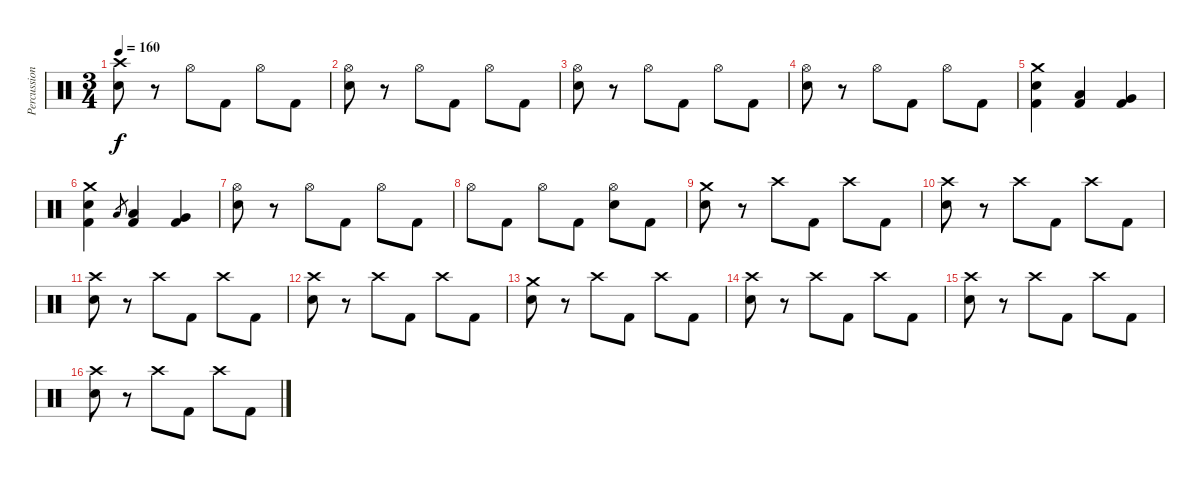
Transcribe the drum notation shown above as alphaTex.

\track ("Percussion" "Percussion") {instrument percussion}
\staff {score}
\articulation defaults
\ts (3 4)
\tempo 160
\clef neutral
\ks c
("Crash high (hit)" "Snare (hit) 2").8{dy f} r.8 "Hi-Hat (open)".8 "Kick (hit) 2".8 "Hi-Hat (open)".8 "Kick (hit) 2".8 |
("Hi-Hat (open)" "Snare (hit) 2").8 r.8 "Hi-Hat (open)".8 "Kick (hit) 2".8 "Hi-Hat (open)".8 "Kick (hit) 2".8 |
("Hi-Hat (open)" "Snare (hit) 2").8 r.8 "Hi-Hat (open)".8 "Kick (hit) 2".8 "Hi-Hat (open)".8 "Kick (hit) 2".8 |
("Hi-Hat (open)" "Snare (hit) 2").8 r.8 "Hi-Hat (open)".8 "Kick (hit) 2".8 "Hi-Hat (open)".8 "Kick (hit) 2".8 |
("Crash medium (hit)" "Snare (hit) 2" "Kick (hit) 2").4 ("Low Tom (hit)" "Kick (hit) 2").4 ("Very Low Tom (hit)" "Kick (hit) 2").4 |
("Crash medium (hit)" "Snare (hit) 2" "Kick (hit) 2").4 "Low Tom (hit)".8{gr} ("Low Tom (hit)" "Kick (hit) 2").4 ("Very Low Tom (hit)" "Kick (hit) 2").4 |
("Hi-Hat (open)" "Snare (hit) 2").8 r.8 "Hi-Hat (open)".8 "Kick (hit) 2".8 "Hi-Hat (open)".8 "Kick (hit) 2".8 |
"Hi-Hat (open)".8 "Kick (hit) 2".8 "Hi-Hat (open)".8 "Kick (hit) 2".8 ("Hi-Hat (open)" "Snare (hit) 2").8 "Kick (hit) 2".8 |
("Crash medium (hit)" "Snare (hit) 2").8 r.8 "Crash high (hit)".8 "Kick (hit) 2".8 "Crash high (hit)".8 "Kick (hit) 2".8 |
("Crash high (hit)" "Snare (hit) 2").8 r.8 "Crash high (hit)".8 "Kick (hit) 2".8 "Crash high (hit)".8 "Kick (hit) 2".8 |
("Crash high (hit)" "Snare (hit) 2").8 r.8 "Crash high (hit)".8 "Kick (hit) 2".8 "Crash high (hit)".8 "Kick (hit) 2".8 |
("Crash high (hit)" "Snare (hit) 2").8 r.8 "Crash high (hit)".8 "Kick (hit) 2".8 "Crash high (hit)".8 "Kick (hit) 2".8 |
("Crash medium (hit)" "Snare (hit) 2").8 r.8 "Crash high (hit)".8 "Kick (hit) 2".8 "Crash high (hit)".8 "Kick (hit) 2".8 |
("Crash high (hit)" "Snare (hit) 2").8 r.8 "Crash high (hit)".8 "Kick (hit) 2".8 "Crash high (hit)".8 "Kick (hit) 2".8 |
("Crash high (hit)" "Snare (hit) 2").8 r.8 "Crash high (hit)".8 "Kick (hit) 2".8 "Crash high (hit)".8 "Kick (hit) 2".8 |
("Crash high (hit)" "Snare (hit) 2").8 r.8 "Crash high (hit)".8 "Kick (hit) 2".8 "Crash high (hit)".8 "Kick (hit) 2".8
